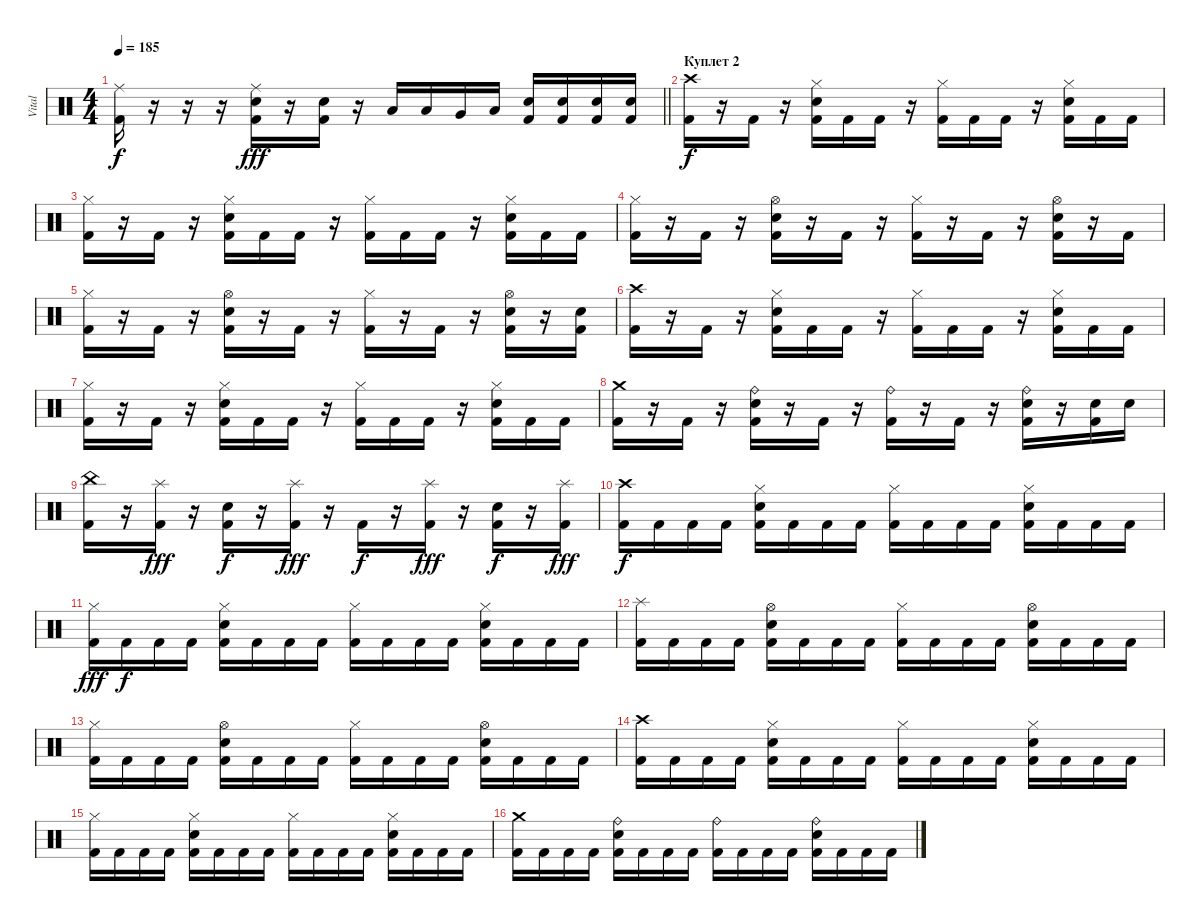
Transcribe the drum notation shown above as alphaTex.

\track ("Vital" "Vital") {instrument percussion}
\staff {score}
\articulation defaults
\ts (4 4)
\tempo 185
\clef neutral
\barLineRight lightlight
\ks c
("Ride (middle)" "Kick (hit) 2").16{dy f} r.16 r.16 r.16 ("Ride (middle)" "Snare (hit) 2" "Kick (hit) 2").16{dy fff} r.16 ("Snare (hit) 2" "Kick (hit) 2").16 r.16 "Low Tom (hit)".16 "Low Tom (hit)".16 "Very Low Tom (hit)".16 "Low Floor Tom (hit)".16 ("Snare (hit) 2" "Kick (hit) 2").16 ("Snare (hit) 2" "Kick (hit) 2").16 ("Snare (hit) 2" "Kick (hit) 2").16 ("Snare (hit) 2" "Kick (hit) 2").16 |
\section ("" "Куплет 2")
("Crash high (hit)" "Kick (hit) 2").16{dy f} r.16 "Kick (hit) 2".16 r.16 ("Hi-Hat (closed)" "Snare (hit) 2" "Kick (hit) 2").16 "Kick (hit) 2".16 "Kick (hit) 2".16 r.16 ("Hi-Hat (closed)" "Kick (hit) 2").16 "Kick (hit) 2".16 "Kick (hit) 2".16 r.16 ("Hi-Hat (closed)" "Snare (hit) 2" "Kick (hit) 2").16 "Kick (hit) 2".16 "Kick (hit) 2".16 |
("Hi-Hat (closed)" "Kick (hit) 2").16 r.16 "Kick (hit) 2".16 r.16 ("Hi-Hat (closed)" "Snare (hit) 2" "Kick (hit) 2").16 "Kick (hit) 2".16 "Kick (hit) 2".16 r.16 ("Hi-Hat (closed)" "Kick (hit) 2").16 "Kick (hit) 2".16 "Kick (hit) 2".16 r.16 ("Hi-Hat (closed)" "Snare (hit) 2" "Kick (hit) 2").16 "Kick (hit) 2".16 "Kick (hit) 2".16 |
("Hi-Hat (closed)" "Kick (hit) 2").16 r.16 "Kick (hit) 2".16 r.16 ("Hi-Hat (open)" "Snare (hit) 2" "Kick (hit) 2").16 r.16 "Kick (hit) 2".16 r.16 ("Hi-Hat (closed)" "Kick (hit) 2").16 r.16 "Kick (hit) 2".16 r.16 ("Hi-Hat (open)" "Snare (hit) 2" "Kick (hit) 2").16 r.16 "Kick (hit) 2".16 |
("Hi-Hat (closed)" "Kick (hit) 2").16 r.16 "Kick (hit) 2".16 r.16 ("Hi-Hat (open)" "Snare (hit) 2" "Kick (hit) 2").16 r.16 "Kick (hit) 2".16 r.16 ("Hi-Hat (closed)" "Kick (hit) 2").16 r.16 "Kick (hit) 2".16 r.16 ("Hi-Hat (open)" "Snare (hit) 2" "Kick (hit) 2").16 r.16 ("Snare (hit) 2" "Kick (hit) 2").16 |
("Crash high (hit)" "Kick (hit) 2").16 r.16 "Kick (hit) 2".16 r.16 ("Hi-Hat (closed)" "Snare (hit) 2" "Kick (hit) 2").16 "Kick (hit) 2".16 "Kick (hit) 2".16 r.16 ("Hi-Hat (closed)" "Kick (hit) 2").16 "Kick (hit) 2".16 "Kick (hit) 2".16 r.16 ("Hi-Hat (closed)" "Snare (hit) 2" "Kick (hit) 2").16 "Kick (hit) 2".16 "Kick (hit) 2".16 |
("Hi-Hat (closed)" "Kick (hit) 2").16 r.16 "Kick (hit) 2".16 r.16 ("Hi-Hat (closed)" "Snare (hit) 2" "Kick (hit) 2").16 "Kick (hit) 2".16 "Kick (hit) 2".16 r.16 ("Hi-Hat (closed)" "Kick (hit) 2").16 "Kick (hit) 2".16 "Kick (hit) 2".16 r.16 ("Hi-Hat (closed)" "Snare (hit) 2" "Kick (hit) 2").16 "Kick (hit) 2".16 "Kick (hit) 2".16 |
("Crash medium (hit)" "Kick (hit) 2").16 r.16 "Kick (hit) 2".16 r.16 ("Ride (bell)" "Snare (hit) 2" "Kick (hit) 2").16 r.16 "Kick (hit) 2".16 r.16 ("Ride (bell)" "Kick (hit) 2").16 r.16 "Kick (hit) 2".16 r.16 ("Ride (bell)" "Snare (hit) 2" "Kick (hit) 2").16 r.16 ("Snare (hit) 2" "Kick (hit) 2").16 "Snare (hit) 2".16 |
("China (hit)" "Kick (hit) 2").16 r.16 ("Splash (hit)" "Kick (hit) 2").16{dy fff} r.16 ("Snare (hit) 2" "Kick (hit) 2").16{dy f} r.16 ("Splash (hit)" "Kick (hit) 2").16{dy fff} r.16 "Kick (hit) 2".16{dy f} r.16 ("Splash (hit)" "Kick (hit) 2").16{dy fff} r.16 ("Snare (hit) 2" "Kick (hit) 2").16{dy f} r.16 ("Splash (hit)" "Kick (hit) 2").16{dy fff} |
("Crash high (hit)" "Kick (hit) 2").16{dy f} "Kick (hit) 2".16 "Kick (hit) 2".16 "Kick (hit) 2".16 ("Hi-Hat (closed)" "Snare (hit) 2" "Kick (hit) 2").16 "Kick (hit) 2".16 "Kick (hit) 2".16 "Kick (hit) 2".16 ("Hi-Hat (closed)" "Kick (hit) 2").16 "Kick (hit) 2".16 "Kick (hit) 2".16 "Kick (hit) 2".16 ("Hi-Hat (closed)" "Snare (hit) 2" "Kick (hit) 2").16 "Kick (hit) 2".16 "Kick (hit) 2".16 "Kick (hit) 2".16 |
("Hi-Hat (closed)" "Kick (hit) 2").16{dy fff} "Kick (hit) 2".16{dy f} "Kick (hit) 2".16 "Kick (hit) 2".16 ("Hi-Hat (closed)" "Snare (hit) 2" "Kick (hit) 2").16 "Kick (hit) 2".16 "Kick (hit) 2".16 "Kick (hit) 2".16 ("Hi-Hat (closed)" "Kick (hit) 2").16 "Kick (hit) 2".16 "Kick (hit) 2".16 "Kick (hit) 2".16 ("Hi-Hat (closed)" "Snare (hit) 2" "Kick (hit) 2").16 "Kick (hit) 2".16 "Kick (hit) 2".16 "Kick (hit) 2".16 |
("Splash (hit)" "Kick (hit) 2").16 "Kick (hit) 2".16 "Kick (hit) 2".16 "Kick (hit) 2".16 ("Hi-Hat (open)" "Snare (hit) 2" "Kick (hit) 2").16 "Kick (hit) 2".16 "Kick (hit) 2".16 "Kick (hit) 2".16 ("Hi-Hat (closed)" "Kick (hit) 2").16 "Kick (hit) 2".16 "Kick (hit) 2".16 "Kick (hit) 2".16 ("Hi-Hat (open)" "Snare (hit) 2" "Kick (hit) 2").16 "Kick (hit) 2".16 "Kick (hit) 2".16 "Kick (hit) 2".16 |
("Hi-Hat (closed)" "Kick (hit) 2").16 "Kick (hit) 2".16 "Kick (hit) 2".16 "Kick (hit) 2".16 ("Hi-Hat (open)" "Snare (hit) 2" "Kick (hit) 2").16 "Kick (hit) 2".16 "Kick (hit) 2".16 "Kick (hit) 2".16 ("Hi-Hat (closed)" "Kick (hit) 2").16 "Kick (hit) 2".16 "Kick (hit) 2".16 "Kick (hit) 2".16 ("Hi-Hat (open)" "Snare (hit) 2" "Kick (hit) 2").16 "Kick (hit) 2".16 "Kick (hit) 2".16 "Kick (hit) 2".16 |
("Crash high (hit)" "Kick (hit) 2").16 "Kick (hit) 2".16 "Kick (hit) 2".16 "Kick (hit) 2".16 ("Hi-Hat (closed)" "Snare (hit) 2" "Kick (hit) 2").16 "Kick (hit) 2".16 "Kick (hit) 2".16 "Kick (hit) 2".16 ("Hi-Hat (closed)" "Kick (hit) 2").16 "Kick (hit) 2".16 "Kick (hit) 2".16 "Kick (hit) 2".16 ("Hi-Hat (closed)" "Snare (hit) 2" "Kick (hit) 2").16 "Kick (hit) 2".16 "Kick (hit) 2".16 "Kick (hit) 2".16 |
("Hi-Hat (closed)" "Kick (hit) 2").16 "Kick (hit) 2".16 "Kick (hit) 2".16 "Kick (hit) 2".16 ("Hi-Hat (closed)" "Snare (hit) 2" "Kick (hit) 2").16 "Kick (hit) 2".16 "Kick (hit) 2".16 "Kick (hit) 2".16 ("Hi-Hat (closed)" "Kick (hit) 2").16 "Kick (hit) 2".16 "Kick (hit) 2".16 "Kick (hit) 2".16 ("Hi-Hat (closed)" "Snare (hit) 2" "Kick (hit) 2").16 "Kick (hit) 2".16 "Kick (hit) 2".16 "Kick (hit) 2".16 |
("Crash medium (hit)" "Kick (hit) 2").16 "Kick (hit) 2".16 "Kick (hit) 2".16 "Kick (hit) 2".16 ("Ride (bell)" "Snare (hit) 2" "Kick (hit) 2").16 "Kick (hit) 2".16 "Kick (hit) 2".16 "Kick (hit) 2".16 ("Ride (bell)" "Kick (hit) 2").16 "Kick (hit) 2".16 "Kick (hit) 2".16 "Kick (hit) 2".16 ("Ride (bell)" "Snare (hit) 2" "Kick (hit) 2").16 "Kick (hit) 2".16 "Kick (hit) 2".16 "Kick (hit) 2".16
